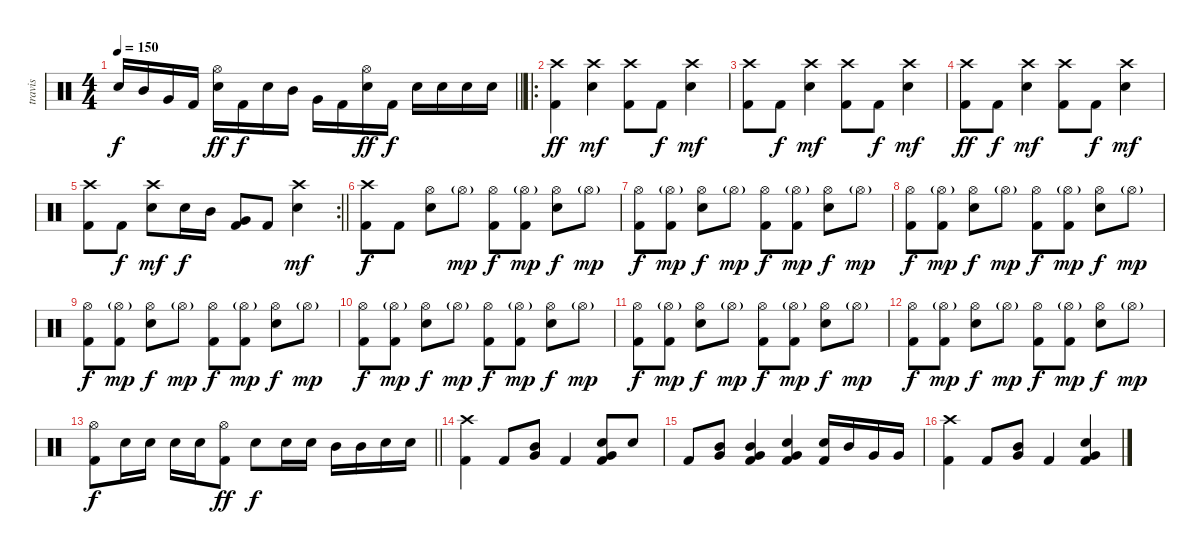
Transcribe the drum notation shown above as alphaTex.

\track ("travis" "travis") {instrument percussion}
\staff {score}
\articulation defaults
\ts (4 4)
\tempo 150
\clef neutral
\barLineRight lightlight
\ks c "Electric Snare (hit)".16{dy f} "Mid Tom (hit)".16 "Very Low Tom (hit)".16 "Kick (hit) 2".16
("Hi-Hat (open)" "Electric Snare (hit)").16{dy ff} "Kick (hit) 2".16{dy f} "Electric Snare (hit)".16 "Mid Tom (hit)".16 "Very Low Tom (hit)".16 "Kick (hit) 2".16 ("Hi-Hat (open)" "Electric Snare (hit)").16{dy ff} "Kick (hit) 2".16{dy f} "Electric Snare (hit)".16 "Electric Snare (hit)".16 "Electric Snare (hit)".16 "Electric Snare (hit)".16 |
\ro
("Crash high (hit)" "Kick (hit) 2").4{dy ff} ("Crash high (hit)" "Electric Snare (hit)").4{dy mf} ("Crash high (hit)" "Kick (hit) 2").8 "Kick (hit) 2".8{dy f} ("Crash high (hit)" "Electric Snare (hit)").4{dy mf} |
("Crash high (hit)" "Kick (hit) 2").8 "Kick (hit) 2".8{dy f} ("Crash high (hit)" "Electric Snare (hit)").4{dy mf} ("Crash high (hit)" "Kick (hit) 2").8 "Kick (hit) 2".8{dy f} ("Crash high (hit)" "Electric Snare (hit)").4{dy mf} |
("Crash high (hit)" "Kick (hit) 2").8{dy ff} "Kick (hit) 2".8{dy f} ("Crash high (hit)" "Electric Snare (hit)").4{dy mf} ("Crash high (hit)" "Kick (hit) 2").8 "Kick (hit) 2".8{dy f} ("Crash high (hit)" "Electric Snare (hit)").4{dy mf} |
\rc 2
\barLineRight lightlight
("Crash high (hit)" "Kick (hit) 2").8 "Kick (hit) 2".8{dy f} ("Crash high (hit)" "Electric Snare (hit)").8{dy mf} "Electric Snare (hit)".16{dy f} "Mid Tom (hit)".16 ("Very Low Tom (hit)" "Kick (hit) 2").8 "Kick (hit) 2".8 ("Crash high (hit)" "Electric Snare (hit)").4{dy mf} |
("Crash high (hit)" "Kick (hit) 2").8{dy f} "Kick (hit) 2".8 ("Hi-Hat (open)" "Electric Snare (hit)").8 "Hi-Hat (open)"{g}.8{dy mp} ("Hi-Hat (open)" "Kick (hit) 2").8{dy f} ("Hi-Hat (open)"{g} "Kick (hit) 2").8{dy mp} ("Hi-Hat (open)" "Electric Snare (hit)").8{dy f} "Hi-Hat (open)"{g}.8{dy mp} |
("Hi-Hat (open)" "Kick (hit) 2").8{dy f} ("Hi-Hat (open)"{g} "Kick (hit) 2").8{dy mp} ("Hi-Hat (open)" "Electric Snare (hit)").8{dy f} "Hi-Hat (open)"{g}.8{dy mp} ("Hi-Hat (open)" "Kick (hit) 2").8{dy f} ("Hi-Hat (open)"{g} "Kick (hit) 2").8{dy mp} ("Hi-Hat (open)" "Electric Snare (hit)").8{dy f} "Hi-Hat (open)"{g}.8{dy mp} |
("Hi-Hat (open)" "Kick (hit) 2").8{dy f} ("Hi-Hat (open)"{g} "Kick (hit) 2").8{dy mp} ("Hi-Hat (open)" "Electric Snare (hit)").8{dy f} "Hi-Hat (open)"{g}.8{dy mp} ("Hi-Hat (open)" "Kick (hit) 2").8{dy f} ("Hi-Hat (open)"{g} "Kick (hit) 2").8{dy mp} ("Hi-Hat (open)" "Electric Snare (hit)").8{dy f} "Hi-Hat (open)"{g}.8{dy mp} |
("Hi-Hat (open)" "Kick (hit) 2").8{dy f} ("Hi-Hat (open)"{g} "Kick (hit) 2").8{dy mp} ("Hi-Hat (open)" "Electric Snare (hit)").8{dy f} "Hi-Hat (open)"{g}.8{dy mp} ("Hi-Hat (open)" "Kick (hit) 2").8{dy f} ("Hi-Hat (open)"{g} "Kick (hit) 2").8{dy mp} ("Hi-Hat (open)" "Electric Snare (hit)").8{dy f} "Hi-Hat (open)"{g}.8{dy mp} |
("Hi-Hat (open)" "Kick (hit) 2").8{dy f} ("Hi-Hat (open)"{g} "Kick (hit) 2").8{dy mp} ("Hi-Hat (open)" "Electric Snare (hit)").8{dy f} "Hi-Hat (open)"{g}.8{dy mp} ("Hi-Hat (open)" "Kick (hit) 2").8{dy f} ("Hi-Hat (open)"{g} "Kick (hit) 2").8{dy mp} ("Hi-Hat (open)" "Electric Snare (hit)").8{dy f} "Hi-Hat (open)"{g}.8{dy mp} |
("Hi-Hat (open)" "Kick (hit) 2").8{dy f} ("Hi-Hat (open)"{g} "Kick (hit) 2").8{dy mp} ("Hi-Hat (open)" "Electric Snare (hit)").8{dy f} "Hi-Hat (open)"{g}.8{dy mp} ("Hi-Hat (open)" "Kick (hit) 2").8{dy f} ("Hi-Hat (open)"{g} "Kick (hit) 2").8{dy mp} ("Hi-Hat (open)" "Electric Snare (hit)").8{dy f} "Hi-Hat (open)"{g}.8{dy mp} |
("Hi-Hat (open)" "Kick (hit) 2").8{dy f} ("Hi-Hat (open)"{g} "Kick (hit) 2").8{dy mp} ("Hi-Hat (open)" "Electric Snare (hit)").8{dy f} "Hi-Hat (open)"{g}.8{dy mp} ("Hi-Hat (open)" "Kick (hit) 2").8{dy f} ("Hi-Hat (open)"{g} "Kick (hit) 2").8{dy mp} ("Hi-Hat (open)" "Electric Snare (hit)").8{dy f} "Hi-Hat (open)"{g}.8{dy mp} |
\barLineRight lightlight
("Hi-Hat (open)" "Kick (hit) 2").8{dy f} "Electric Snare (hit)".16 "Electric Snare (hit)".16 "Electric Snare (hit)".16 "Electric Snare (hit)".16 ("Hi-Hat (open)" "Kick (hit) 2").8{dy ff} "Electric Snare (hit)".8{dy f} "Electric Snare (hit)".16 "Electric Snare (hit)".16 "Mid Tom (hit)".16 "Mid Tom (hit)".16 "Electric Snare (hit)".16 "Electric Snare (hit)".16 |
("Crash high (hit)" "Kick (hit) 2").4 "Kick (hit) 2".8 ("Mid Tom (hit)" "Very Low Tom (hit)").8 "Kick (hit) 2".4 ("Very Low Tom (hit)" "Electric Snare (hit)" "Kick (hit) 2").8 "Electric Snare (hit)".8 |
"Kick (hit) 2".8 ("Mid Tom (hit)" "Very Low Tom (hit)").8 ("Mid Tom (hit)" "Very Low Tom (hit)" "Kick (hit) 2").4 ("Very Low Tom (hit)" "Electric Snare (hit)" "Kick (hit) 2").4 ("Electric Snare (hit)" "Kick (hit) 2").16 "Mid Tom (hit)".16 "Very Low Tom (hit)".16 "Very Low Tom (hit)".16 |
("Crash high (hit)" "Kick (hit) 2").4 "Kick (hit) 2".8 ("Mid Tom (hit)" "Very Low Tom (hit)").8 "Kick (hit) 2".4 ("Very Low Tom (hit)" "Electric Snare (hit)" "Kick (hit) 2").4
